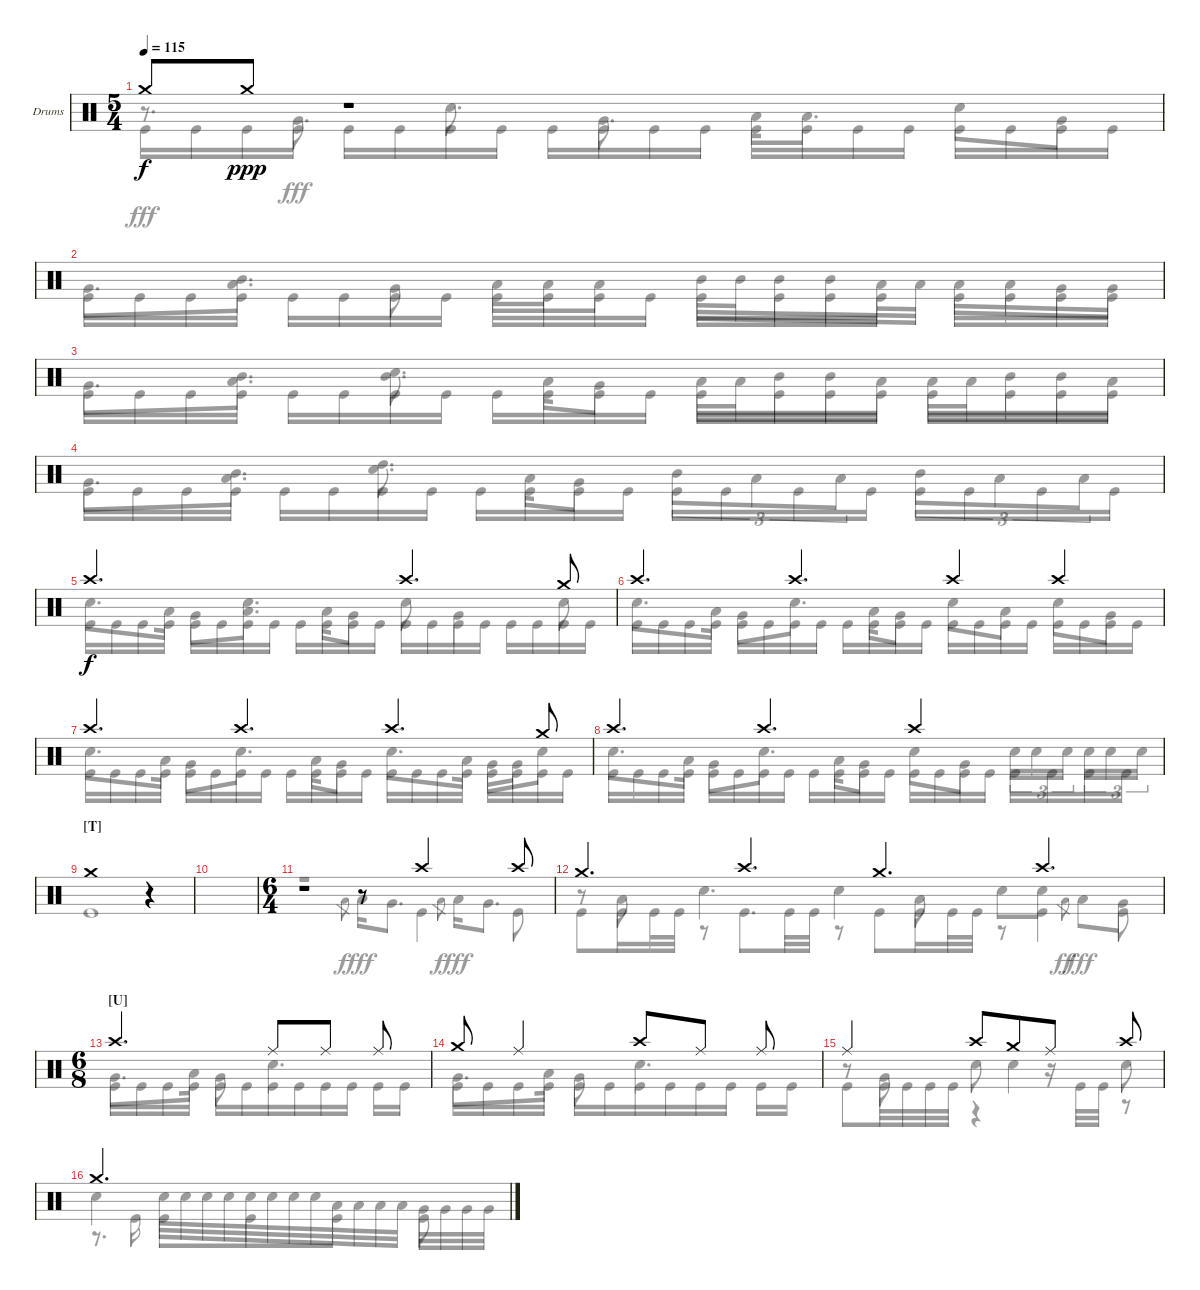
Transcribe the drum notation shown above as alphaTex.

\defaultSystemsLayout 4
\bracketExtendMode groupsimilarinstruments
\firstSystemTrackNameOrientation horizontal
\otherSystemsTrackNameOrientation horizontal
\track ("Drumkit" "Drums") {instrument percussion}
\staff {score}
\articulation defaults
\voice
\ts (5 4)
\tempo 115
\clef neutral
\ks c "Crash medium (hit)".8{dy f} "Crash medium (hit)".8{dy ppp}
r.1 |
|
|
|
"Crash high (hit)".2{d dy f} "Crash high (hit)".4{d} "Crash medium (hit)".8 |
"Crash high (hit)".4{d} "Crash high (hit)".4{d} "Crash high (hit)".4 "Crash high (hit)".4 |
"Crash high (hit)".4{d} "Crash high (hit)".4{d} "Crash high (hit)".4{d} "Crash medium (hit)".8 |
"Crash high (hit)".4{d} "Crash high (hit)".4{d} "Crash high (hit)".2 |
\beaming (8 3 3 3 1)
\section ("T" "")
"Crash medium (hit)".1 r.4 |
|
\ts (6 4)
\beaming (8 3 3 3 2 1)
r.1 r.8 "Crash high (hit)".4 "Crash high (hit)".8 |
\beaming (8 2 3 3 2 2)
"Crash medium (hit)".4{d} "Crash high (hit)".4{d} "Crash medium (hit)".4{d} "Crash high (hit)".4{d} |
\ts (6 8)
\section ("U" "")
"Crash high (hit)".4{d} "Ride (middle)".8 "Ride (middle)".8 "Ride (middle)".8 |
"Crash medium (hit)".8 "Ride (middle)".4 "Crash high (hit)".8 "Ride (middle)".8 "Ride (middle)".8 |
"Ride (middle)".4 "Crash high (hit)".8 "Crash medium (hit)".8 "Ride (middle)".8 "Crash high (hit)".8 |
"Crash medium (hit)".2{d}
\voice
\clef neutral
\ottava regular
\simile none
\ks c
r.8{d dy fff} "Very Low Tom (hit)".8{d} "Snare (hit) 2".8{d} "Very Low Tom (hit)".8{d} "Low Tom (hit)".16 "Low Tom (hit)".8{d} "Snare (hit) 2".8 "Very Low Tom (hit)".8 |
"Very Low Tom (hit)".8{d} ("Low Tom (hit)" "Mid Tom (hit)").8{d} "Very Low Tom (hit)".8 "Low Tom (hit)".16 "Low Tom (hit)".16 "Low Tom (hit)".8 "Mid Tom (hit)".32 "Mid Tom (hit)".32 "Mid Tom (hit)".16 "Mid Tom (hit)".16 "Low Tom (hit)".32 "Low Tom (hit)".32 "Low Tom (hit)".16 "Low Tom (hit)".16 "Very Low Tom (hit)".16 "Very Low Tom (hit)".16 |
"Very Low Tom (hit)".8{d} ("Low Tom (hit)" "Mid Tom (hit)").8{d} ("Mid Tom (hit)" "Snare (hit) 2").8{d} "Low Tom (hit)".16 "Very Low Tom (hit)".8 "Low Tom (hit)".32 "Low Tom (hit)".32 "Mid Tom (hit)".16 "Mid Tom (hit)".16 "Low Tom (hit)".16 "Low Tom (hit)".32 "Low Tom (hit)".32 "Mid Tom (hit)".16 "Mid Tom (hit)".16 "Low Tom (hit)".16 |
"Very Low Tom (hit)".8{d} ("Low Tom (hit)" "Mid Tom (hit)").8{d} ("Snare (hit) 2" "High Tom (hit)").8{d} "Low Tom (hit)".16 "Very Low Tom (hit)".8 "Mid Tom (hit)".8{tu (3 2)} "Low Tom (hit)".8{tu (3 2)} "Low Tom (hit)".8{tu (3 2)} "Mid Tom (hit)".8{tu (3 2)} "Low Tom (hit)".8{tu (3 2)} "Low Tom (hit)".8{tu (3 2)} |
"Snare (hit) 2".8{d} "Low Tom (hit)".16 "Very Low Tom (hit)".8 ("Low Tom (hit)" "Snare (hit) 2").8{d} "Low Tom (hit)".16 "Very Low Tom (hit)".8 "Snare (hit) 2".8 "Very Low Tom (hit)".4 "Snare (hit) 2".8 |
"Snare (hit) 2".8{d} "Low Tom (hit)".16 "Very Low Tom (hit)".8 "Snare (hit) 2".8{d} "Low Tom (hit)".16 "Very Low Tom (hit)".8 "Snare (hit) 2".8 "Low Tom (hit)".8 "Snare (hit) 2".8 "Very Low Tom (hit)".8 |
"Snare (hit) 2".8{d} "Low Tom (hit)".16 "Very Low Tom (hit)".8 "Snare (hit) 2".8{d} "Low Tom (hit)".16 "Very Low Tom (hit)".8 "Snare (hit) 2".8{d} "Low Tom (hit)".16 "Very Low Tom (hit)".16 "Very Low Tom (hit)".16 "Snare (hit) 2".8 |
"Snare (hit) 2".8{d} "Low Tom (hit)".16 "Very Low Tom (hit)".8 "Snare (hit) 2".8{d} "Low Tom (hit)".16 "Very Low Tom (hit)".8 "Snare (hit) 2".8 "Very Low Tom (hit)".8 "Snare (hit) 2".16{tu (3 2)} "Snare (hit) 2".16{tu (3 2)} "Snare (hit) 2".16{tu (3 2)} "Snare (hit) 2".16{tu (3 2)} "Snare (hit) 2".16{tu (3 2)} "Snare (hit) 2".16{tu (3 2)} |
|
|
r.1 "Low Tom (hit)".8{gr dy f} "Low Tom (hit)".16{dy fff} "Very Low Tom (hit)".8{d} "Low Tom (hit)".8{gr dy f} "Low Tom (hit)".16{dy fff} "Very Low Tom (hit)".8{d} |
r.8 "Low Tom (hit)".8 "Snare (hit) 2".4{d} "Snare (hit) 2".4 "Low Tom (hit)".8 "Snare (hit) 2".8 "Snare (hit) 2".8 "Low Tom (hit)".8{gr dy ff} "Low Tom (hit)".8{dy fff} "Very Low Tom (hit)".8 |
"Very Low Tom (hit)".8{d} "Low Tom (hit)".16 "Very Low Tom (hit)".8 "Snare (hit) 2".4{d} |
"Very Low Tom (hit)".8{d} "Low Tom (hit)".16 "Very Low Tom (hit)".8 "Snare (hit) 2".4{d} |
r.8 "Very Low Tom (hit)".8 "Snare (hit) 2".8 "Snare (hit) 2".4 "Snare (hit) 2".8 |
"Snare (hit) 2".4 "Snare (hit) 2".32 "Snare (hit) 2".32 "Snare (hit) 2".32 "Snare (hit) 2".32 "Snare (hit) 2".32 "Snare (hit) 2".32 "Snare (hit) 2".32 "Snare (hit) 2".32 "Low Tom (hit)".32 "Low Tom (hit)".32 "Low Tom (hit)".32 "Low Tom (hit)".32 "Very Low Tom (hit)".32 "Very Low Tom (hit)".32 "Very Low Tom (hit)".32 "Very Low Tom (hit)".32
\voice
\clef neutral
\ottava regular
\simile none
\ks c "Kick (hit)".16{dy fff} "Kick (hit)".16 "Kick (hit)".16 "Kick (hit)".16 "Kick (hit)".16 "Kick (hit)".16 "Kick (hit)".16 "Kick (hit)".16 "Kick (hit)".16 "Kick (hit)".16 "Kick (hit)".16 "Kick (hit)".16 "Kick (hit)".16 "Kick (hit)".16 "Kick (hit)".16 "Kick (hit)".16 "Kick (hit)".16 "Kick (hit)".16 "Kick (hit)".16 "Kick (hit)".16
|
"Kick (hit)".16 "Kick (hit)".16 "Kick (hit)".16 "Kick (hit)".16 "Kick (hit)".16 "Kick (hit)".16 "Kick (hit)".16 "Kick (hit)".16 "Kick (hit)".16 "Kick (hit)".16 "Kick (hit)".16 "Kick (hit)".16 "Kick (hit)".16 "Kick (hit)".16 "Kick (hit)".16 "Kick (hit)".16 "Kick (hit)".16 "Kick (hit)".16 "Kick (hit)".16 "Kick (hit)".16 |
"Kick (hit)".16 "Kick (hit)".16 "Kick (hit)".16 "Kick (hit)".16 "Kick (hit)".16 "Kick (hit)".16 "Kick (hit)".16 "Kick (hit)".16 "Kick (hit)".16 "Kick (hit)".16 "Kick (hit)".16 "Kick (hit)".16 "Kick (hit)".16 "Kick (hit)".16 "Kick (hit)".16 "Kick (hit)".16 "Kick (hit)".16 "Kick (hit)".16 "Kick (hit)".16 "Kick (hit)".16 |
"Kick (hit)".16 "Kick (hit)".16 "Kick (hit)".16 "Kick (hit)".16 "Kick (hit)".16 "Kick (hit)".16 "Kick (hit)".16 "Kick (hit)".16 "Kick (hit)".16 "Kick (hit)".16 "Kick (hit)".16 "Kick (hit)".16 "Kick (hit)".16 "Kick (hit)".16 "Kick (hit)".16 "Kick (hit)".16 "Kick (hit)".16 "Kick (hit)".16 "Kick (hit)".16 "Kick (hit)".16 |
"Kick (hit)".16 "Kick (hit)".16 "Kick (hit)".16 "Kick (hit)".16 "Kick (hit)".16 "Kick (hit)".16 "Kick (hit)".16 "Kick (hit)".16 "Kick (hit)".16 "Kick (hit)".16 "Kick (hit)".16 "Kick (hit)".16 "Kick (hit)".16 "Kick (hit)".16 "Kick (hit)".16 "Kick (hit)".16 "Kick (hit)".16 "Kick (hit)".16 "Kick (hit)".16 "Kick (hit)".16 |
"Kick (hit)".16 "Kick (hit)".16 "Kick (hit)".16 "Kick (hit)".16 "Kick (hit)".16 "Kick (hit)".16 "Kick (hit)".16 "Kick (hit)".16 "Kick (hit)".16 "Kick (hit)".16 "Kick (hit)".16 "Kick (hit)".16 "Kick (hit)".16 "Kick (hit)".16 "Kick (hit)".16 "Kick (hit)".16 "Kick (hit)".16 "Kick (hit)".16 "Kick (hit)".16 "Kick (hit)".16 |
"Kick (hit)".16 "Kick (hit)".16 "Kick (hit)".16 "Kick (hit)".16 "Kick (hit)".16 "Kick (hit)".16 "Kick (hit)".16 "Kick (hit)".16 "Kick (hit)".16 "Kick (hit)".16 "Kick (hit)".16 "Kick (hit)".16 "Kick (hit)".16 "Kick (hit)".16 "Kick (hit)".16 "Kick (hit)".16 "Kick (hit)".16 "Kick (hit)".16 "Kick (hit)".16 "Kick (hit)".16 |
"Kick (hit)".16 "Kick (hit)".16 "Kick (hit)".16 "Kick (hit)".16 "Kick (hit)".16 "Kick (hit)".16 "Kick (hit)".16 "Kick (hit)".16 "Kick (hit)".16 "Kick (hit)".16 "Kick (hit)".16 "Kick (hit)".16 "Kick (hit)".16 "Kick (hit)".16 "Kick (hit)".16 "Kick (hit)".16 "Kick (hit)".16 "Kick (hit)".16 "Kick (hit)".16 "Kick (hit)".16 |
"Kick (hit)".1 r.4 |
|
r.1 r.8 "Kick (hit)".4 "Kick (hit)".8 |
"Kick (hit)".8 "Kick (hit)".16 "Kick (hit)".32 "Kick (hit)".32 r.8 "Kick (hit)".8{d} "Kick (hit)".32 "Kick (hit)".32 r.8 "Kick (hit)".8 "Kick (hit)".16 "Kick (hit)".32 "Kick (hit)".32 r.8 "Kick (hit)".4 "Kick (hit)".8 |
"Kick (hit)".16 "Kick (hit)".16 "Kick (hit)".16 "Kick (hit)".16 "Kick (hit)".16 "Kick (hit)".16 "Kick (hit)".16 "Kick (hit)".16 "Kick (hit)".16 "Kick (hit)".16 "Kick (hit)".16 "Kick (hit)".16 |
"Kick (hit)".16 "Kick (hit)".16 "Kick (hit)".16 "Kick (hit)".16 "Kick (hit)".16 "Kick (hit)".16 "Kick (hit)".16 "Kick (hit)".16 "Kick (hit)".16 "Kick (hit)".16 "Kick (hit)".16 "Kick (hit)".16 |
"Kick (hit)".8 "Kick (hit)".32 "Kick (hit)".32 "Kick (hit)".32 "Kick (hit)".32 r.4 r.16 "Kick (hit)".32 "Kick (hit)".32 r.8 |
r.8{d} "Kick (hit)".16 "Kick (hit)".8 "Kick (hit)".8 "Kick (hit)".8 "Kick (hit)".8
